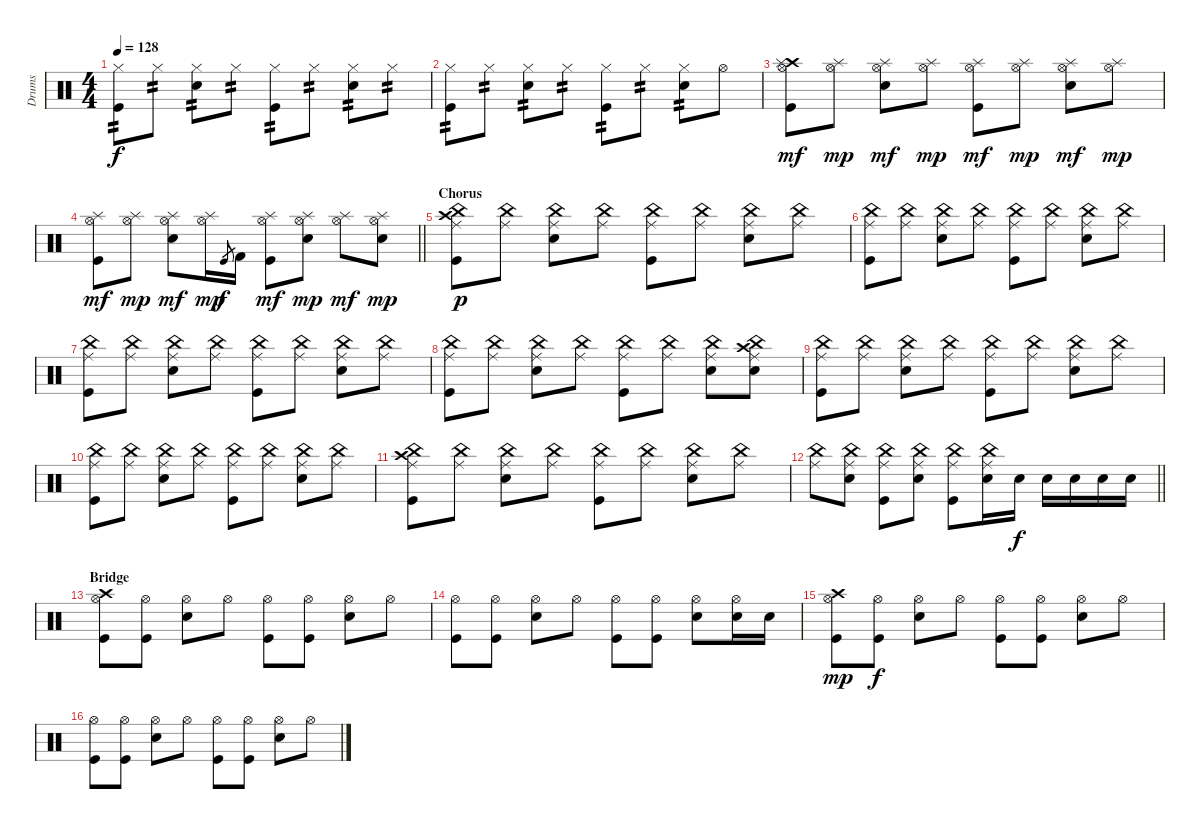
\track ("Drums" "Drums") {instrument percussion}
\staff {score}
\articulation defaults
\ts (4 4)
\tempo 128
\clef neutral
\ks c
("Hi-Hat (closed)" "Kick (hit)").8{tp 2 dy f} "Hi-Hat (closed)".8{tp 2} ("Hi-Hat (closed)" "Snare (hit) 2").8{tp 2} "Hi-Hat (closed)".8{tp 2} ("Hi-Hat (closed)" "Kick (hit)").8{tp 2} "Hi-Hat (closed)".8{tp 2} ("Hi-Hat (closed)" "Snare (hit) 2").8{tp 2} "Hi-Hat (closed)".8{tp 2} |
("Hi-Hat (closed)" "Kick (hit)").8{tp 2} "Hi-Hat (closed)".8{tp 2} ("Hi-Hat (closed)" "Snare (hit) 2").8{tp 2} "Hi-Hat (closed)".8{tp 2} ("Hi-Hat (closed)" "Kick (hit)").8{tp 2} "Hi-Hat (closed)".8{tp 2} ("Hi-Hat (closed)" "Snare (hit) 2").8{tp 2} "Hi-Hat (open)".8 |
("Crash high (hit)" "Hi-Hat (open)" "Splash (hit)" "Kick (hit)").8{dy mf} ("Hi-Hat (open)" "Splash (hit)").8{dy mp} ("Hi-Hat (open)" "Splash (hit)" "Snare (hit) 2").8{dy mf} ("Hi-Hat (open)" "Splash (hit)").8{dy mp} ("Hi-Hat (open)" "Splash (hit)" "Kick (hit)").8{dy mf} ("Hi-Hat (open)" "Splash (hit)").8{dy mp} ("Hi-Hat (open)" "Splash (hit)" "Snare (hit) 2").8{dy mf} ("Hi-Hat (open)" "Splash (hit)").8{dy mp} |
\barLineRight lightlight
("Hi-Hat (open)" "Splash (hit)" "Kick (hit)").8{dy mf} ("Hi-Hat (open)" "Splash (hit)").8{dy mp} ("Hi-Hat (open)" "Splash (hit)" "Snare (hit) 2").8{dy mf} ("Hi-Hat (open)" "Splash (hit)").16{dy mp} "Kick (hit)".8{gr dy f} "Kick (hit) 2".16 ("Hi-Hat (open)" "Splash (hit)" "Kick (hit)").8{dy mf} ("Hi-Hat (open)" "Splash (hit)" "Snare (hit) 2").8{dy mp} ("Hi-Hat (open)" "Splash (hit)").8{dy mf} ("Hi-Hat (open)" "Splash (hit)" "Snare (hit) 2").8{dy mp} |
\section ("" "Chorus")
("Crash high (hit)" "Ride (middle)" "China (hit)" "Kick (hit)").8{dy p} ("Ride (middle)" "China (hit)").8 ("Ride (middle)" "China (hit)" "Snare (hit) 2").8 ("Ride (middle)" "China (hit)").8 ("Ride (middle)" "China (hit)" "Kick (hit)").8 ("Ride (middle)" "China (hit)").8 ("Ride (middle)" "China (hit)" "Electric Snare (hit)").8 ("Ride (middle)" "China (hit)").8 |
("Ride (middle)" "China (hit)" "Kick (hit)").8 ("Ride (middle)" "China (hit)").8 ("Ride (middle)" "China (hit)" "Electric Snare (hit)").8 ("Ride (middle)" "China (hit)").8 ("Ride (middle)" "China (hit)" "Kick (hit)").8 ("Ride (middle)" "China (hit)").8 ("Ride (middle)" "China (hit)" "Electric Snare (hit)").8 ("Ride (middle)" "China (hit)").8 |
("Ride (middle)" "China (hit)" "Kick (hit)").8 ("Ride (middle)" "China (hit)").8 ("Ride (middle)" "China (hit)" "Electric Snare (hit)").8 ("Ride (middle)" "China (hit)").8 ("Ride (middle)" "China (hit)" "Kick (hit)").8 ("Ride (middle)" "China (hit)").8 ("Ride (middle)" "China (hit)" "Electric Snare (hit)").8 ("Ride (middle)" "China (hit)").8 |
("Ride (middle)" "China (hit)" "Kick (hit)").8 ("Ride (middle)" "China (hit)").8 ("Ride (middle)" "China (hit)" "Electric Snare (hit)").8 ("Ride (middle)" "China (hit)").8 ("Ride (middle)" "China (hit)" "Kick (hit)").8 ("Ride (middle)" "China (hit)").8 ("Ride (middle)" "China (hit)" "Electric Snare (hit)").8 ("Crash high (hit)" "Ride (middle)" "China (hit)" "Electric Snare (hit)").8 |
("Ride (middle)" "China (hit)" "Kick (hit)").8 ("Ride (middle)" "China (hit)").8 ("Ride (middle)" "China (hit)" "Electric Snare (hit)").8 ("Ride (middle)" "China (hit)").8 ("Ride (middle)" "China (hit)" "Kick (hit)").8 ("Ride (middle)" "China (hit)").8 ("Ride (middle)" "China (hit)" "Electric Snare (hit)").8 ("Ride (middle)" "China (hit)").8 |
("Ride (middle)" "China (hit)" "Kick (hit)").8 ("Ride (middle)" "China (hit)").8 ("Ride (middle)" "China (hit)" "Electric Snare (hit)").8 ("Ride (middle)" "China (hit)").8 ("Ride (middle)" "China (hit)" "Kick (hit)").8 ("Ride (middle)" "China (hit)").8 ("Ride (middle)" "China (hit)" "Electric Snare (hit)").8 ("Ride (middle)" "China (hit)").8 |
("Crash high (hit)" "Ride (middle)" "China (hit)" "Kick (hit)").8 ("Ride (middle)" "China (hit)").8 ("Ride (middle)" "China (hit)" "Electric Snare (hit)").8 ("Ride (middle)" "China (hit)").8 ("Ride (middle)" "China (hit)" "Kick (hit)").8 ("Ride (middle)" "China (hit)").8 ("Ride (middle)" "China (hit)" "Electric Snare (hit)").8 ("Ride (middle)" "China (hit)").8 |
\barLineRight lightlight
("Ride (middle)" "China (hit)").8 ("Ride (middle)" "China (hit)" "Electric Snare (hit)").8 ("Ride (middle)" "China (hit)" "Kick (hit)").8 ("Ride (middle)" "China (hit)" "Electric Snare (hit)").8 ("Ride (middle)" "China (hit)" "Kick (hit)").8 ("Ride (middle)" "China (hit)" "Electric Snare (hit)").16 "Electric Snare (hit)".16{dy f} "Electric Snare (hit)".16 "Electric Snare (hit)".16 "Electric Snare (hit)".16 "Electric Snare (hit)".16 |
\section ("" "Bridge")
("Crash high (hit)" "Hi-Hat (open)" "Kick (hit)").8 ("Hi-Hat (open)" "Kick (hit)").8 ("Hi-Hat (open)" "Snare (hit) 2").8 "Hi-Hat (open)".8 ("Hi-Hat (open)" "Kick (hit)").8 ("Hi-Hat (open)" "Kick (hit)").8 ("Hi-Hat (open)" "Snare (hit) 2").8 "Hi-Hat (open)".8 |
("Hi-Hat (open)" "Kick (hit)").8 ("Hi-Hat (open)" "Kick (hit)").8 ("Hi-Hat (open)" "Snare (hit) 2").8 "Hi-Hat (open)".8 ("Hi-Hat (open)" "Kick (hit)").8 ("Hi-Hat (open)" "Kick (hit)").8 ("Hi-Hat (open)" "Snare (hit) 2").8 ("Hi-Hat (open)" "Snare (hit) 2").16 "Snare (hit) 2".16 |
("Crash high (hit)" "Hi-Hat (open)" "Kick (hit)").8{dy mp} ("Hi-Hat (open)" "Kick (hit)").8{dy f} ("Hi-Hat (open)" "Snare (hit) 2").8 "Hi-Hat (open)".8 ("Hi-Hat (open)" "Kick (hit)").8 ("Hi-Hat (open)" "Kick (hit)").8 ("Hi-Hat (open)" "Snare (hit) 2").8 "Hi-Hat (open)".8 |
("Hi-Hat (open)" "Kick (hit)").8 ("Hi-Hat (open)" "Kick (hit)").8 ("Hi-Hat (open)" "Snare (hit) 2").8 "Hi-Hat (open)".8 ("Hi-Hat (open)" "Kick (hit)").8 ("Hi-Hat (open)" "Kick (hit)").8 ("Hi-Hat (open)" "Snare (hit) 2").8 "Hi-Hat (open)".8
